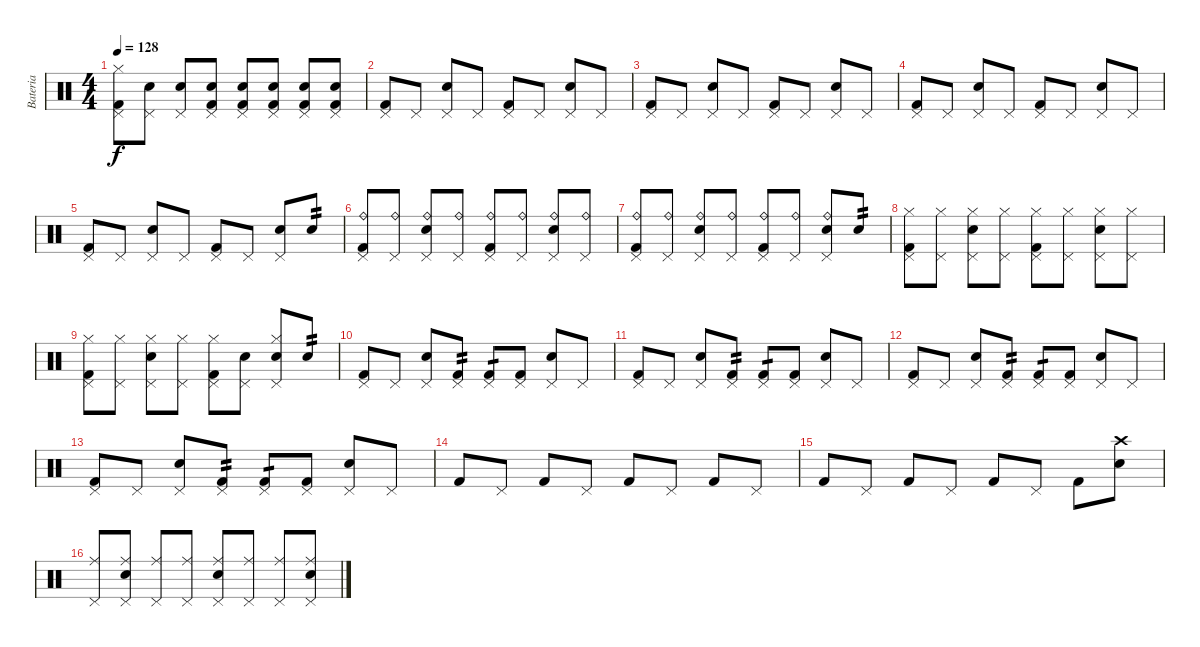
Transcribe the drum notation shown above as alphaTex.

\track ("Bateria" "Bateria") {instrument percussion}
\staff {score}
\articulation defaults
\ts (4 4)
\tempo 128
\clef neutral
\ks c
("Pedal Hi-Hat (hit)" "Kick (hit) 2" "Hi-Hat (closed)").8{dy f volume 16} ("Pedal Hi-Hat (hit)" "Electric Snare (hit)").8 ("Pedal Hi-Hat (hit)" "Electric Snare (hit)").8 ("Pedal Hi-Hat (hit)" "Electric Snare (hit)" "Kick (hit) 2").8 ("Pedal Hi-Hat (hit)" "Electric Snare (hit)" "Kick (hit) 2").8 ("Pedal Hi-Hat (hit)" "Electric Snare (hit)" "Kick (hit) 2").8 ("Pedal Hi-Hat (hit)" "Electric Snare (hit)" "Kick (hit) 2").8 ("Pedal Hi-Hat (hit)" "Electric Snare (hit)" "Kick (hit) 2").8 |
("Pedal Hi-Hat (hit)" "Kick (hit) 2").8{volume 13} "Pedal Hi-Hat (hit)".8 ("Pedal Hi-Hat (hit)" "Electric Snare (hit)").8 "Pedal Hi-Hat (hit)".8 ("Pedal Hi-Hat (hit)" "Kick (hit) 2").8 "Pedal Hi-Hat (hit)".8 ("Pedal Hi-Hat (hit)" "Electric Snare (hit)").8 "Pedal Hi-Hat (hit)".8 |
("Pedal Hi-Hat (hit)" "Kick (hit) 2").8 "Pedal Hi-Hat (hit)".8 ("Pedal Hi-Hat (hit)" "Electric Snare (hit)").8 "Pedal Hi-Hat (hit)".8 ("Pedal Hi-Hat (hit)" "Kick (hit) 2").8 "Pedal Hi-Hat (hit)".8 ("Pedal Hi-Hat (hit)" "Electric Snare (hit)").8 "Pedal Hi-Hat (hit)".8 |
("Pedal Hi-Hat (hit)" "Kick (hit) 2").8 "Pedal Hi-Hat (hit)".8 ("Pedal Hi-Hat (hit)" "Electric Snare (hit)").8 "Pedal Hi-Hat (hit)".8 ("Pedal Hi-Hat (hit)" "Kick (hit) 2").8 "Pedal Hi-Hat (hit)".8 ("Pedal Hi-Hat (hit)" "Electric Snare (hit)").8 "Pedal Hi-Hat (hit)".8 |
("Pedal Hi-Hat (hit)" "Kick (hit) 2").8 "Pedal Hi-Hat (hit)".8 ("Pedal Hi-Hat (hit)" "Electric Snare (hit)").8 "Pedal Hi-Hat (hit)".8 ("Pedal Hi-Hat (hit)" "Kick (hit) 2").8 "Pedal Hi-Hat (hit)".8 ("Pedal Hi-Hat (hit)" "Electric Snare (hit)").8 "Electric Snare (hit)".8{tp 2} |
("Pedal Hi-Hat (hit)" "Kick (hit) 2" "Ride (bell)").8 ("Pedal Hi-Hat (hit)" "Ride (bell)").8 ("Pedal Hi-Hat (hit)" "Electric Snare (hit)" "Ride (bell)").8 ("Pedal Hi-Hat (hit)" "Ride (bell)").8 ("Pedal Hi-Hat (hit)" "Kick (hit) 2" "Ride (bell)").8 ("Pedal Hi-Hat (hit)" "Ride (bell)").8 ("Pedal Hi-Hat (hit)" "Electric Snare (hit)" "Ride (bell)").8 ("Pedal Hi-Hat (hit)" "Ride (bell)").8 |
("Pedal Hi-Hat (hit)" "Kick (hit) 2" "Ride (bell)").8 ("Pedal Hi-Hat (hit)" "Ride (bell)").8 ("Pedal Hi-Hat (hit)" "Electric Snare (hit)" "Ride (bell)").8 ("Pedal Hi-Hat (hit)" "Ride (bell)").8 ("Pedal Hi-Hat (hit)" "Kick (hit) 2" "Ride (bell)").8 ("Pedal Hi-Hat (hit)" "Ride (bell)").8 ("Pedal Hi-Hat (hit)" "Electric Snare (hit)" "Ride (bell)").8 "Electric Snare (hit)".8{tp 2} |
("Pedal Hi-Hat (hit)" "Kick (hit) 2" "Hi-Hat (closed)").8 ("Pedal Hi-Hat (hit)" "Hi-Hat (closed)").8 ("Pedal Hi-Hat (hit)" "Electric Snare (hit)" "Hi-Hat (closed)").8 ("Pedal Hi-Hat (hit)" "Hi-Hat (closed)").8 ("Pedal Hi-Hat (hit)" "Kick (hit) 2" "Hi-Hat (closed)").8 ("Pedal Hi-Hat (hit)" "Hi-Hat (closed)").8 ("Pedal Hi-Hat (hit)" "Electric Snare (hit)" "Hi-Hat (closed)").8 ("Pedal Hi-Hat (hit)" "Hi-Hat (closed)").8 |
("Pedal Hi-Hat (hit)" "Kick (hit) 2" "Hi-Hat (closed)").8 ("Pedal Hi-Hat (hit)" "Hi-Hat (closed)").8 ("Pedal Hi-Hat (hit)" "Electric Snare (hit)" "Hi-Hat (closed)").8 ("Pedal Hi-Hat (hit)" "Hi-Hat (closed)").8 ("Pedal Hi-Hat (hit)" "Kick (hit) 2" "Hi-Hat (closed)").8 ("Pedal Hi-Hat (hit)" "Snare (hit)").8 ("Pedal Hi-Hat (hit)" "Electric Snare (hit)" "Hi-Hat (closed)").8 "Electric Snare (hit)".8{tp 2} |
("Pedal Hi-Hat (hit)" "Kick (hit) 2").8 "Pedal Hi-Hat (hit)".8 ("Pedal Hi-Hat (hit)" "Electric Snare (hit)").8 ("Pedal Hi-Hat (hit)" "Kick (hit) 2").8{tp 2} ("Pedal Hi-Hat (hit)" "Kick (hit) 2").8{tp 1} ("Pedal Hi-Hat (hit)" "Kick (hit) 2").8 ("Pedal Hi-Hat (hit)" "Electric Snare (hit)").8 "Pedal Hi-Hat (hit)".8 |
("Pedal Hi-Hat (hit)" "Kick (hit) 2").8 "Pedal Hi-Hat (hit)".8 ("Pedal Hi-Hat (hit)" "Electric Snare (hit)").8 ("Pedal Hi-Hat (hit)" "Kick (hit) 2").8{tp 2} ("Pedal Hi-Hat (hit)" "Kick (hit) 2").8{tp 1} ("Pedal Hi-Hat (hit)" "Kick (hit) 2").8 ("Pedal Hi-Hat (hit)" "Electric Snare (hit)").8 "Pedal Hi-Hat (hit)".8 |
("Pedal Hi-Hat (hit)" "Kick (hit) 2").8 "Pedal Hi-Hat (hit)".8 ("Pedal Hi-Hat (hit)" "Electric Snare (hit)").8 ("Pedal Hi-Hat (hit)" "Kick (hit) 2").8{tp 2} ("Pedal Hi-Hat (hit)" "Kick (hit) 2").8{tp 1} ("Pedal Hi-Hat (hit)" "Kick (hit) 2").8 ("Pedal Hi-Hat (hit)" "Electric Snare (hit)").8 "Pedal Hi-Hat (hit)".8 |
("Pedal Hi-Hat (hit)" "Kick (hit) 2").8 "Pedal Hi-Hat (hit)".8 ("Pedal Hi-Hat (hit)" "Electric Snare (hit)").8 ("Pedal Hi-Hat (hit)" "Kick (hit) 2").8{tp 2} ("Pedal Hi-Hat (hit)" "Kick (hit) 2").8{tp 1} ("Pedal Hi-Hat (hit)" "Kick (hit) 2").8 ("Pedal Hi-Hat (hit)" "Electric Snare (hit)").8 "Pedal Hi-Hat (hit)".8 |
"Kick (hit) 2".8 "Pedal Hi-Hat (hit)".8 "Kick (hit) 2".8 "Pedal Hi-Hat (hit)".8 "Kick (hit) 2".8 "Pedal Hi-Hat (hit)".8 "Kick (hit) 2".8 "Pedal Hi-Hat (hit)".8 |
"Kick (hit) 2".8 "Pedal Hi-Hat (hit)".8 "Kick (hit) 2".8 "Pedal Hi-Hat (hit)".8 "Kick (hit) 2".8 "Pedal Hi-Hat (hit)".8 "Kick (hit) 2".8 ("Electric Snare (hit)" "Crash high (hit)").8 |
("Pedal Hi-Hat (hit)" "Ride (middle)").8 ("Pedal Hi-Hat (hit)" "Electric Snare (hit)" "Ride (middle)").8 ("Pedal Hi-Hat (hit)" "Ride (middle)").8 ("Pedal Hi-Hat (hit)" "Ride (middle)").8 ("Pedal Hi-Hat (hit)" "Electric Snare (hit)" "Ride (middle)").8 ("Pedal Hi-Hat (hit)" "Ride (middle)").8 ("Pedal Hi-Hat (hit)" "Ride (middle)").8 ("Pedal Hi-Hat (hit)" "Electric Snare (hit)" "Ride (middle)").8
